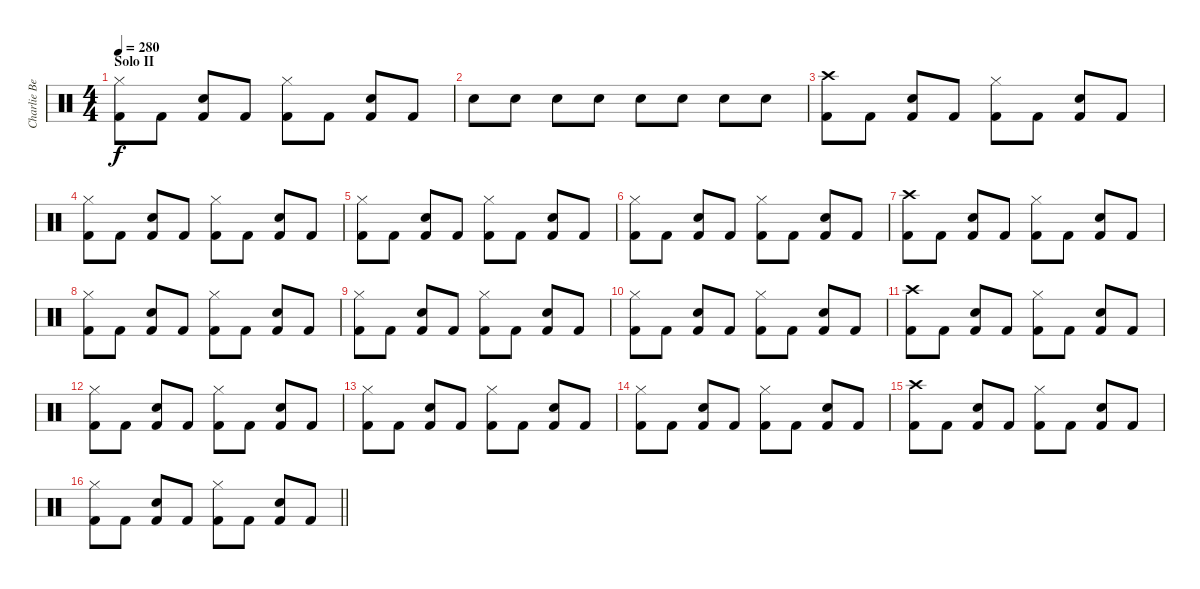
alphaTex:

\track ("Charlie Benante" "Charlie Be") {instrument percussion}
\staff {score}
\articulation defaults
\ts (4 4)
\section ("" "Solo II")
\tempo 280
\clef neutral
\ks c
("Hi-Hat (closed)" "Kick (hit) 2").8{dy f} "Kick (hit) 2".8 ("Snare (hit) 2" "Kick (hit) 2").8 "Kick (hit) 2".8 ("Hi-Hat (closed)" "Kick (hit) 2").8 "Kick (hit) 2".8 ("Snare (hit) 2" "Kick (hit) 2").8 "Kick (hit) 2".8 |
"Snare (hit) 2".8 "Snare (hit) 2".8 "Snare (hit) 2".8 "Snare (hit) 2".8 "Snare (hit) 2".8 "Snare (hit) 2".8 "Snare (hit) 2".8 "Snare (hit) 2".8 |
("Crash high (hit)" "Kick (hit) 2").8 "Kick (hit) 2".8 ("Snare (hit) 2" "Kick (hit) 2").8 "Kick (hit) 2".8 ("Hi-Hat (closed)" "Kick (hit) 2").8 "Kick (hit) 2".8 ("Snare (hit) 2" "Kick (hit) 2").8 "Kick (hit) 2".8 |
("Hi-Hat (closed)" "Kick (hit) 2").8 "Kick (hit) 2".8 ("Snare (hit) 2" "Kick (hit) 2").8 "Kick (hit) 2".8 ("Hi-Hat (closed)" "Kick (hit) 2").8 "Kick (hit) 2".8 ("Snare (hit) 2" "Kick (hit) 2").8 "Kick (hit) 2".8 |
("Hi-Hat (closed)" "Kick (hit) 2").8 "Kick (hit) 2".8 ("Snare (hit) 2" "Kick (hit) 2").8 "Kick (hit) 2".8 ("Hi-Hat (closed)" "Kick (hit) 2").8 "Kick (hit) 2".8 ("Snare (hit) 2" "Kick (hit) 2").8 "Kick (hit) 2".8 |
("Hi-Hat (closed)" "Kick (hit) 2").8 "Kick (hit) 2".8 ("Snare (hit) 2" "Kick (hit) 2").8 "Kick (hit) 2".8 ("Hi-Hat (closed)" "Kick (hit) 2").8 "Kick (hit) 2".8 ("Snare (hit) 2" "Kick (hit) 2").8 "Kick (hit) 2".8 |
("Crash high (hit)" "Kick (hit) 2").8 "Kick (hit) 2".8 ("Snare (hit) 2" "Kick (hit) 2").8 "Kick (hit) 2".8 ("Hi-Hat (closed)" "Kick (hit) 2").8 "Kick (hit) 2".8 ("Snare (hit) 2" "Kick (hit) 2").8 "Kick (hit) 2".8 |
("Hi-Hat (closed)" "Kick (hit) 2").8 "Kick (hit) 2".8 ("Snare (hit) 2" "Kick (hit) 2").8 "Kick (hit) 2".8 ("Hi-Hat (closed)" "Kick (hit) 2").8 "Kick (hit) 2".8 ("Snare (hit) 2" "Kick (hit) 2").8 "Kick (hit) 2".8 |
("Hi-Hat (closed)" "Kick (hit) 2").8 "Kick (hit) 2".8 ("Snare (hit) 2" "Kick (hit) 2").8 "Kick (hit) 2".8 ("Hi-Hat (closed)" "Kick (hit) 2").8 "Kick (hit) 2".8 ("Snare (hit) 2" "Kick (hit) 2").8 "Kick (hit) 2".8 |
("Hi-Hat (closed)" "Kick (hit) 2").8 "Kick (hit) 2".8 ("Snare (hit) 2" "Kick (hit) 2").8 "Kick (hit) 2".8 ("Hi-Hat (closed)" "Kick (hit) 2").8 "Kick (hit) 2".8 ("Snare (hit) 2" "Kick (hit) 2").8 "Kick (hit) 2".8 |
("Crash high (hit)" "Kick (hit) 2").8 "Kick (hit) 2".8 ("Snare (hit) 2" "Kick (hit) 2").8 "Kick (hit) 2".8 ("Hi-Hat (closed)" "Kick (hit) 2").8 "Kick (hit) 2".8 ("Snare (hit) 2" "Kick (hit) 2").8 "Kick (hit) 2".8 |
("Hi-Hat (closed)" "Kick (hit) 2").8 "Kick (hit) 2".8 ("Snare (hit) 2" "Kick (hit) 2").8 "Kick (hit) 2".8 ("Hi-Hat (closed)" "Kick (hit) 2").8 "Kick (hit) 2".8 ("Snare (hit) 2" "Kick (hit) 2").8 "Kick (hit) 2".8 |
("Hi-Hat (closed)" "Kick (hit) 2").8 "Kick (hit) 2".8 ("Snare (hit) 2" "Kick (hit) 2").8 "Kick (hit) 2".8 ("Hi-Hat (closed)" "Kick (hit) 2").8 "Kick (hit) 2".8 ("Snare (hit) 2" "Kick (hit) 2").8 "Kick (hit) 2".8 |
("Hi-Hat (closed)" "Kick (hit) 2").8 "Kick (hit) 2".8 ("Snare (hit) 2" "Kick (hit) 2").8 "Kick (hit) 2".8 ("Hi-Hat (closed)" "Kick (hit) 2").8 "Kick (hit) 2".8 ("Snare (hit) 2" "Kick (hit) 2").8 "Kick (hit) 2".8 |
("Crash high (hit)" "Kick (hit) 2").8 "Kick (hit) 2".8 ("Snare (hit) 2" "Kick (hit) 2").8 "Kick (hit) 2".8 ("Hi-Hat (closed)" "Kick (hit) 2").8 "Kick (hit) 2".8 ("Snare (hit) 2" "Kick (hit) 2").8 "Kick (hit) 2".8 |
\barLineRight lightlight
("Hi-Hat (closed)" "Kick (hit) 2").8 "Kick (hit) 2".8 ("Snare (hit) 2" "Kick (hit) 2").8 "Kick (hit) 2".8 ("Hi-Hat (closed)" "Kick (hit) 2").8 "Kick (hit) 2".8 ("Snare (hit) 2" "Kick (hit) 2").8 "Kick (hit) 2".8
